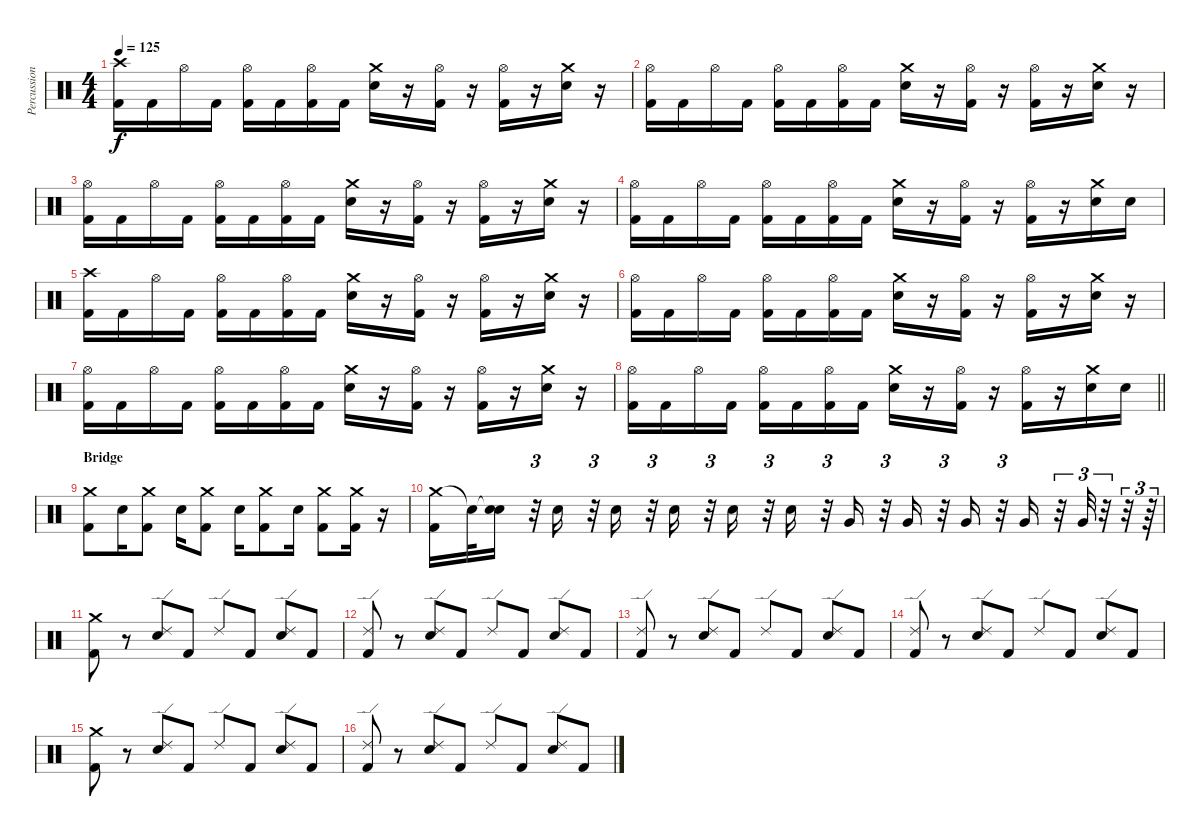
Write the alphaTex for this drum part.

\track ("Percussion" "Percussion") {instrument percussion}
\staff {score}
\articulation defaults
\ts (4 4)
\tempo 125
\clef neutral
\ks c
("Crash high (hit)" "Kick (hit) 2").16{dy f} "Kick (hit) 2".16 "Hi-Hat (open)".16 "Kick (hit) 2".16 ("Hi-Hat (open)" "Kick (hit) 2").16 "Kick (hit) 2".16 ("Hi-Hat (open)" "Kick (hit) 2").16 "Kick (hit) 2".16 ("Crash medium (hit)" "Electric Snare (hit)").16 r.16 ("Hi-Hat (open)" "Kick (hit) 2").16 r.16 ("Hi-Hat (open)" "Kick (hit) 2").16 r.16 ("Crash medium (hit)" "Electric Snare (hit)").16 r.16 |
("Hi-Hat (open)" "Kick (hit) 2").16 "Kick (hit) 2".16 "Hi-Hat (open)".16 "Kick (hit) 2".16 ("Hi-Hat (open)" "Kick (hit) 2").16 "Kick (hit) 2".16 ("Hi-Hat (open)" "Kick (hit) 2").16 "Kick (hit) 2".16 ("Crash medium (hit)" "Electric Snare (hit)").16 r.16 ("Hi-Hat (open)" "Kick (hit) 2").16 r.16 ("Hi-Hat (open)" "Kick (hit) 2").16 r.16 ("Crash medium (hit)" "Electric Snare (hit)").16 r.16 |
("Hi-Hat (open)" "Kick (hit) 2").16 "Kick (hit) 2".16 "Hi-Hat (open)".16 "Kick (hit) 2".16 ("Hi-Hat (open)" "Kick (hit) 2").16 "Kick (hit) 2".16 ("Hi-Hat (open)" "Kick (hit) 2").16 "Kick (hit) 2".16 ("Crash medium (hit)" "Electric Snare (hit)").16 r.16 ("Hi-Hat (open)" "Kick (hit) 2").16 r.16 ("Hi-Hat (open)" "Kick (hit) 2").16 r.16 ("Crash medium (hit)" "Electric Snare (hit)").16 r.16 |
("Hi-Hat (open)" "Kick (hit) 2").16 "Kick (hit) 2".16 "Hi-Hat (open)".16 "Kick (hit) 2".16 ("Hi-Hat (open)" "Kick (hit) 2").16 "Kick (hit) 2".16 ("Hi-Hat (open)" "Kick (hit) 2").16 "Kick (hit) 2".16 ("Crash medium (hit)" "Electric Snare (hit)").16 r.16 ("Hi-Hat (open)" "Kick (hit) 2").16 r.16 ("Hi-Hat (open)" "Kick (hit) 2").16 r.16 ("Crash medium (hit)" "Electric Snare (hit)").16 "Electric Snare (hit)".16 |
("Crash high (hit)" "Kick (hit) 2").16 "Kick (hit) 2".16 "Hi-Hat (open)".16 "Kick (hit) 2".16 ("Hi-Hat (open)" "Kick (hit) 2").16 "Kick (hit) 2".16 ("Hi-Hat (open)" "Kick (hit) 2").16 "Kick (hit) 2".16 ("Crash medium (hit)" "Electric Snare (hit)").16 r.16 ("Hi-Hat (open)" "Kick (hit) 2").16 r.16 ("Hi-Hat (open)" "Kick (hit) 2").16 r.16 ("Crash medium (hit)" "Electric Snare (hit)").16 r.16 |
("Hi-Hat (open)" "Kick (hit) 2").16 "Kick (hit) 2".16 "Hi-Hat (open)".16 "Kick (hit) 2".16 ("Hi-Hat (open)" "Kick (hit) 2").16 "Kick (hit) 2".16 ("Hi-Hat (open)" "Kick (hit) 2").16 "Kick (hit) 2".16 ("Crash medium (hit)" "Electric Snare (hit)").16 r.16 ("Hi-Hat (open)" "Kick (hit) 2").16 r.16 ("Hi-Hat (open)" "Kick (hit) 2").16 r.16 ("Crash medium (hit)" "Electric Snare (hit)").16 r.16 |
("Hi-Hat (open)" "Kick (hit) 2").16 "Kick (hit) 2".16 "Hi-Hat (open)".16 "Kick (hit) 2".16 ("Hi-Hat (open)" "Kick (hit) 2").16 "Kick (hit) 2".16 ("Hi-Hat (open)" "Kick (hit) 2").16 "Kick (hit) 2".16 ("Crash medium (hit)" "Electric Snare (hit)").16 r.16 ("Hi-Hat (open)" "Kick (hit) 2").16 r.16 ("Hi-Hat (open)" "Kick (hit) 2").16 r.16 ("Crash medium (hit)" "Electric Snare (hit)").16 r.16 |
\barLineRight lightlight
("Hi-Hat (open)" "Kick (hit) 2").16 "Kick (hit) 2".16 "Hi-Hat (open)".16 "Kick (hit) 2".16 ("Hi-Hat (open)" "Kick (hit) 2").16 "Kick (hit) 2".16 ("Hi-Hat (open)" "Kick (hit) 2").16 "Kick (hit) 2".16 ("Crash medium (hit)" "Electric Snare (hit)").16 r.16 ("Hi-Hat (open)" "Kick (hit) 2").16 r.16 ("Hi-Hat (open)" "Kick (hit) 2").16 r.16 ("Crash medium (hit)" "Electric Snare (hit)").16 "Electric Snare (hit)".16 |
\section ("" "Bridge")
("Crash medium (hit)" "Kick (hit) 2").8 "Electric Snare (hit)".16 ("Crash medium (hit)" "Kick (hit) 2").8 "Electric Snare (hit)".16 ("Crash medium (hit)" "Kick (hit) 2").8 "Electric Snare (hit)".16 ("Crash medium (hit)" "Kick (hit) 2").8 "Electric Snare (hit)".16 ("Crash medium (hit)" "Kick (hit) 2").8 ("Crash medium (hit)" "Kick (hit) 2").16 r.16 |
("Crash medium (hit)" "Kick (hit) 2").16 "Snare (hit)"{t}.32 ("Snare (hit)"{t} "Electric Snare (hit)").16 r.32{tu (3 2)} "Electric Snare (hit)".16 r.32{tu (3 2)} "Electric Snare (hit)".16 r.32{tu (3 2)} "Electric Snare (hit)".16 r.32{tu (3 2)} "Electric Snare (hit)".16 r.32{tu (3 2)} "Electric Snare (hit)".16 r.32{tu (3 2)} "Very Low Tom (hit)".16 r.32{tu (3 2)} "Very Low Tom (hit)".16 r.32{tu (3 2)} "Very Low Tom (hit)".16 r.32{tu (3 2)} "Very Low Tom (hit)".16 r.32{tu (3 2)} "Very Low Tom (hit)".32{tu (3 2)} r.32{tu (3 2)} r.32{tu (3 2)} r.64{tu (3 2)} |
("Crash medium (hit)" "Kick (hit) 2").8 r.8 ("Ride (edge) 2" "Electric Snare (hit)").8 "Kick (hit) 2".8 "Ride (edge) 2".8 "Kick (hit) 2".8 ("Ride (edge) 2" "Electric Snare (hit)").8 "Kick (hit) 2".8 |
("Ride (edge) 2" "Kick (hit) 2").8 r.8 ("Ride (edge) 2" "Electric Snare (hit)").8 "Kick (hit) 2".8 "Ride (edge) 2".8 "Kick (hit) 2".8 ("Ride (edge) 2" "Electric Snare (hit)").8 "Kick (hit) 2".8 |
("Ride (edge) 2" "Kick (hit) 2").8 r.8 ("Ride (edge) 2" "Electric Snare (hit)").8 "Kick (hit) 2".8 "Ride (edge) 2".8 "Kick (hit) 2".8 ("Ride (edge) 2" "Electric Snare (hit)").8 "Kick (hit) 2".8 |
("Ride (edge) 2" "Kick (hit) 2").8 r.8 ("Ride (edge) 2" "Electric Snare (hit)").8 "Kick (hit) 2".8 "Ride (edge) 2".8 "Kick (hit) 2".8 ("Ride (edge) 2" "Electric Snare (hit)").8 "Kick (hit) 2".8 |
("Crash medium (hit)" "Kick (hit) 2").8 r.8 ("Ride (edge) 2" "Electric Snare (hit)").8 "Kick (hit) 2".8 "Ride (edge) 2".8 "Kick (hit) 2".8 ("Ride (edge) 2" "Electric Snare (hit)").8 "Kick (hit) 2".8 |
("Ride (edge) 2" "Kick (hit) 2").8 r.8 ("Ride (edge) 2" "Electric Snare (hit)").8 "Kick (hit) 2".8 "Ride (edge) 2".8 "Kick (hit) 2".8 ("Ride (edge) 2" "Electric Snare (hit)").8 "Kick (hit) 2".8
